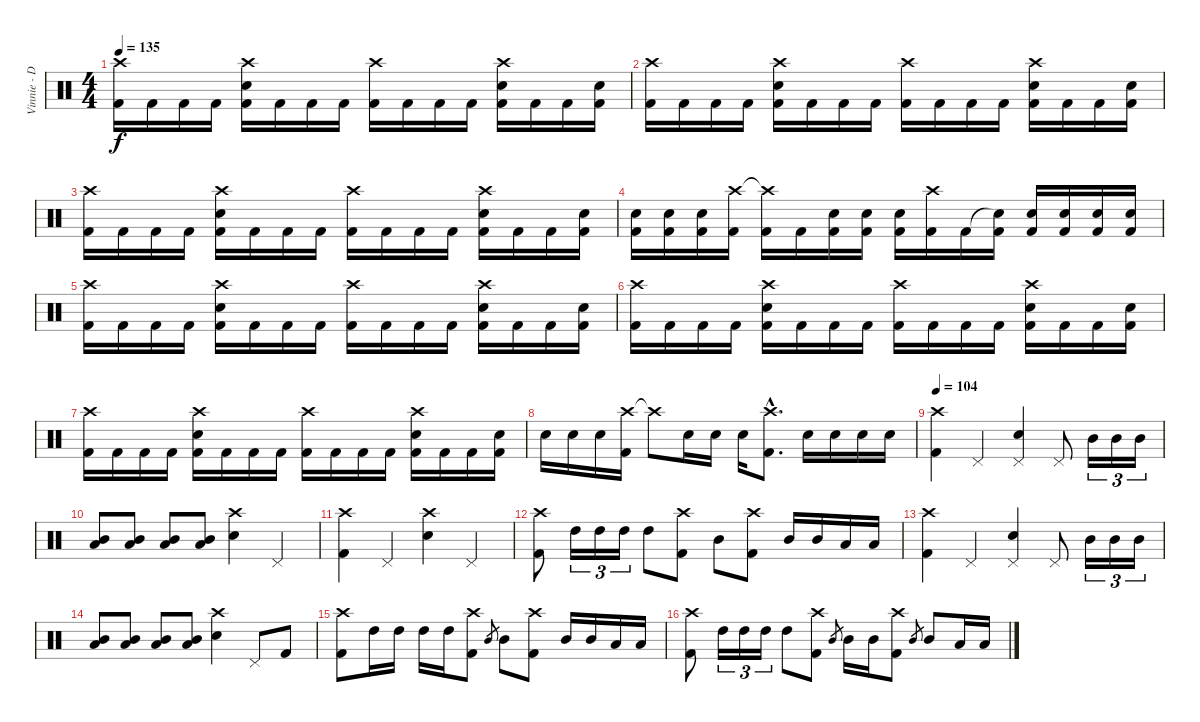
\track ("Vinnie - Drums" "Vinnie - D") {instrument percussion}
\staff {score}
\articulation defaults
\ts (4 4)
\tempo 135
\clef neutral
\ks c
("Crash high (hit)" "Kick (hit) 2").16{dy f} "Kick (hit) 2".16 "Kick (hit) 2".16 "Kick (hit) 2".16 ("Crash high (hit)" "Electric Snare (hit)" "Kick (hit) 2").16 "Kick (hit) 2".16 "Kick (hit) 2".16 "Kick (hit) 2".16 ("Crash high (hit)" "Kick (hit) 2").16 "Kick (hit) 2".16 "Kick (hit) 2".16 "Kick (hit) 2".16 ("Crash high (hit)" "Electric Snare (hit)" "Kick (hit) 2").16 "Kick (hit) 2".16 "Kick (hit) 2".16 ("Electric Snare (hit)" "Kick (hit) 2").16 |
("Crash high (hit)" "Kick (hit) 2").16 "Kick (hit) 2".16 "Kick (hit) 2".16 "Kick (hit) 2".16 ("Crash high (hit)" "Electric Snare (hit)" "Kick (hit) 2").16 "Kick (hit) 2".16 "Kick (hit) 2".16 "Kick (hit) 2".16 ("Crash high (hit)" "Kick (hit) 2").16 "Kick (hit) 2".16 "Kick (hit) 2".16 "Kick (hit) 2".16 ("Crash high (hit)" "Electric Snare (hit)" "Kick (hit) 2").16 "Kick (hit) 2".16 "Kick (hit) 2".16 ("Electric Snare (hit)" "Kick (hit) 2").16 |
("Crash high (hit)" "Kick (hit) 2").16 "Kick (hit) 2".16 "Kick (hit) 2".16 "Kick (hit) 2".16 ("Crash high (hit)" "Electric Snare (hit)" "Kick (hit) 2").16 "Kick (hit) 2".16 "Kick (hit) 2".16 "Kick (hit) 2".16 ("Crash high (hit)" "Kick (hit) 2").16 "Kick (hit) 2".16 "Kick (hit) 2".16 "Kick (hit) 2".16 ("Crash high (hit)" "Electric Snare (hit)" "Kick (hit) 2").16 "Kick (hit) 2".16 "Kick (hit) 2".16 ("Electric Snare (hit)" "Kick (hit) 2").16 |
("Electric Snare (hit)" "Kick (hit) 2").16 ("Electric Snare (hit)" "Kick (hit) 2").16 ("Electric Snare (hit)" "Kick (hit) 2").16 ("Crash high (hit)" "Kick (hit) 2").16 ("Crash high (hit)"{t} "Kick (hit) 2").16 "Kick (hit) 2".16 ("Electric Snare (hit)" "Kick (hit) 2").16 ("Electric Snare (hit)" "Kick (hit) 2").16 ("Electric Snare (hit)" "Kick (hit) 2").16 ("Crash high (hit)" "Kick (hit) 2").16 "Kick (hit) 2".16 ("Snare (hit)"{t} "Kick (hit) 2").16 ("Electric Snare (hit)" "Kick (hit) 2").16 ("Electric Snare (hit)" "Kick (hit) 2").16 ("Electric Snare (hit)" "Kick (hit) 2").16 ("Electric Snare (hit)" "Kick (hit) 2").16 |
("Crash high (hit)" "Kick (hit) 2").16 "Kick (hit) 2".16 "Kick (hit) 2".16 "Kick (hit) 2".16 ("Crash high (hit)" "Electric Snare (hit)" "Kick (hit) 2").16 "Kick (hit) 2".16 "Kick (hit) 2".16 "Kick (hit) 2".16 ("Crash high (hit)" "Kick (hit) 2").16 "Kick (hit) 2".16 "Kick (hit) 2".16 "Kick (hit) 2".16 ("Crash high (hit)" "Electric Snare (hit)" "Kick (hit) 2").16 "Kick (hit) 2".16 "Kick (hit) 2".16 ("Electric Snare (hit)" "Kick (hit) 2").16 |
("Crash high (hit)" "Kick (hit) 2").16 "Kick (hit) 2".16 "Kick (hit) 2".16 "Kick (hit) 2".16 ("Crash high (hit)" "Electric Snare (hit)" "Kick (hit) 2").16 "Kick (hit) 2".16 "Kick (hit) 2".16 "Kick (hit) 2".16 ("Crash high (hit)" "Kick (hit) 2").16 "Kick (hit) 2".16 "Kick (hit) 2".16 "Kick (hit) 2".16 ("Crash high (hit)" "Electric Snare (hit)" "Kick (hit) 2").16 "Kick (hit) 2".16 "Kick (hit) 2".16 ("Electric Snare (hit)" "Kick (hit) 2").16 |
("Crash high (hit)" "Kick (hit) 2").16 "Kick (hit) 2".16 "Kick (hit) 2".16 "Kick (hit) 2".16 ("Crash high (hit)" "Electric Snare (hit)" "Kick (hit) 2").16 "Kick (hit) 2".16 "Kick (hit) 2".16 "Kick (hit) 2".16 ("Crash high (hit)" "Kick (hit) 2").16 "Kick (hit) 2".16 "Kick (hit) 2".16 "Kick (hit) 2".16 ("Crash high (hit)" "Electric Snare (hit)" "Kick (hit) 2").16 "Kick (hit) 2".16 "Kick (hit) 2".16 ("Electric Snare (hit)" "Kick (hit) 2").16 |
"Electric Snare (hit)".16 "Electric Snare (hit)".16 "Electric Snare (hit)".16 ("Crash high (hit)" "Kick (hit) 2").16 "Crash high (hit)"{t}.8 "Electric Snare (hit)".16 "Electric Snare (hit)".16 "Electric Snare (hit)".16 ("Crash high (hit)"{hac} "Kick (hit) 2"{hac}).8{d} "Electric Snare (hit)".16 "Electric Snare (hit)".16 "Electric Snare (hit)".16 "Electric Snare (hit)".16 |
\tempo 104
("Crash high (hit)" "Kick (hit) 2").4 "Pedal Hi-Hat (hit)".4 ("Pedal Hi-Hat (hit)" "Electric Snare (hit)").4 "Pedal Hi-Hat (hit)".8 "Mid Tom (hit)".16{tu (3 2)} "Mid Tom (hit)".16{tu (3 2)} "Mid Tom (hit)".16{tu (3 2)} |
("Mid Tom (hit)" "Low Tom (hit)").8 ("Mid Tom (hit)" "Low Tom (hit)").8 ("Mid Tom (hit)" "Low Tom (hit)").8 ("Mid Tom (hit)" "Low Tom (hit)").8 ("Crash high (hit)" "Electric Snare (hit)").4 "Pedal Hi-Hat (hit)".4 |
("Crash high (hit)" "Kick (hit) 2").4 "Pedal Hi-Hat (hit)".4 ("Crash high (hit)" "Electric Snare (hit)").4 "Pedal Hi-Hat (hit)".4 |
("Crash high (hit)" "Kick (hit) 2").8 "High Tom (hit)".16{tu (3 2)} "High Tom (hit)".16{tu (3 2)} "High Tom (hit)".16{tu (3 2)} "High Tom (hit)".8 ("Crash high (hit)" "Kick (hit) 2").8 "Mid Tom (hit)".8 ("Crash high (hit)" "Kick (hit) 2").8 "Mid Tom (hit)".16 "Mid Tom (hit)".16 "Low Tom (hit)".16 "Low Tom (hit)".16 |
("Crash high (hit)" "Kick (hit) 2").4 "Pedal Hi-Hat (hit)".4 ("Pedal Hi-Hat (hit)" "Electric Snare (hit)").4 "Pedal Hi-Hat (hit)".8 "Mid Tom (hit)".16{tu (3 2)} "Mid Tom (hit)".16{tu (3 2)} "Mid Tom (hit)".16{tu (3 2)} |
("Mid Tom (hit)" "Low Tom (hit)").8 ("Mid Tom (hit)" "Low Tom (hit)").8 ("Mid Tom (hit)" "Low Tom (hit)").8 ("Mid Tom (hit)" "Low Tom (hit)").8 ("Crash high (hit)" "Electric Snare (hit)").4 "Pedal Hi-Hat (hit)".8 "Kick (hit) 2".8 |
("Crash high (hit)" "Kick (hit) 2").8 "High Tom (hit)".16 "High Tom (hit)".16 "High Tom (hit)".16 "High Tom (hit)".16 ("Crash high (hit)" "Kick (hit) 2").8 "Mid Tom (hit)".8{gr} "Mid Tom (hit)".8 ("Crash high (hit)" "Kick (hit) 2").8 "Mid Tom (hit)".16 "Mid Tom (hit)".16 "Low Tom (hit)".16 "Low Tom (hit)".16 |
("Crash high (hit)" "Kick (hit) 2").8 "High Tom (hit)".16{tu (3 2)} "High Tom (hit)".16{tu (3 2)} "High Tom (hit)".16{tu (3 2)} "High Tom (hit)".8 ("Crash high (hit)" "Kick (hit) 2").8 "Mid Tom (hit)".8{gr} "Mid Tom (hit)".16 "Mid Tom (hit)".16 ("Crash high (hit)" "Kick (hit) 2").8 "Mid Tom (hit)".8{gr} "Mid Tom (hit)".8 "Low Tom (hit)".16 "Low Tom (hit)".16
